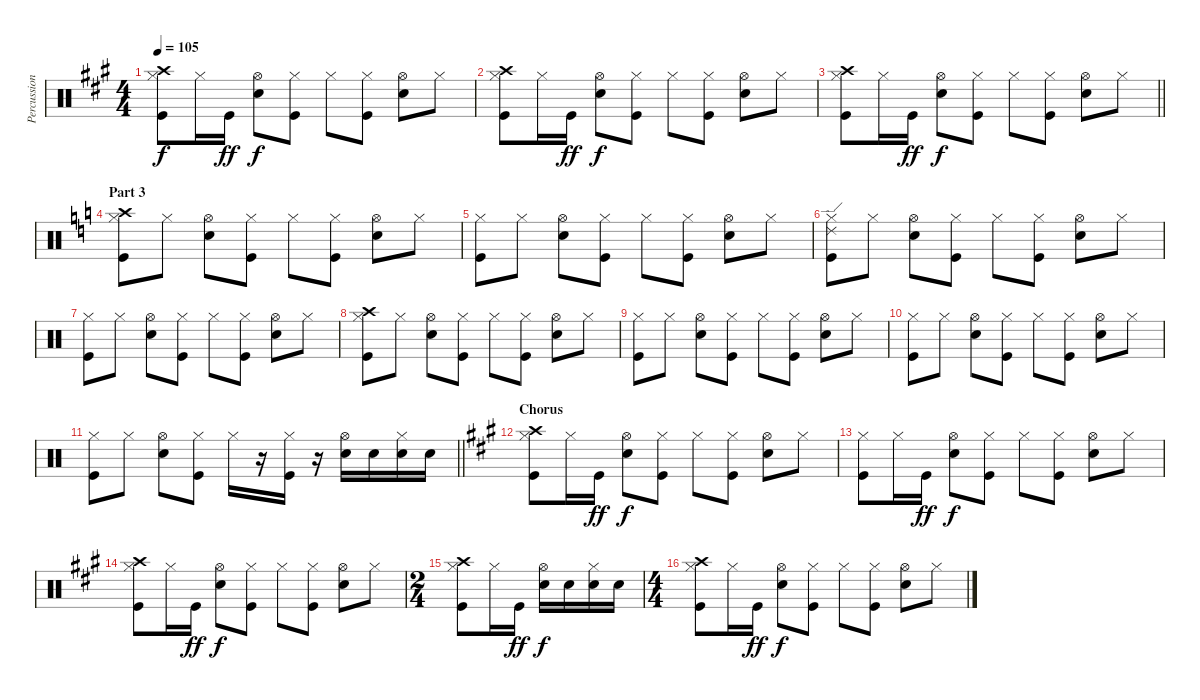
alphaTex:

\track ("Percussion" "Percussion") {instrument percussion}
\staff {score}
\articulation defaults
\ts (4 4)
\tempo 105
\clef neutral
\ks a
("Hi-Hat (closed)" "Crash high (hit)" "Kick (hit)").8{dy f} "Hi-Hat (closed)".16 "Kick (hit)".16{dy ff} ("Hi-Hat (open)" "Snare (hit) 2").8{dy f} ("Hi-Hat (closed)" "Kick (hit)").8 "Hi-Hat (closed)".8 ("Hi-Hat (closed)" "Kick (hit)").8 ("Hi-Hat (open)" "Snare (hit) 2").8 "Hi-Hat (closed)".8 |
("Hi-Hat (closed)" "Crash high (hit)" "Kick (hit)").8 "Hi-Hat (closed)".16 "Kick (hit)".16{dy ff} ("Hi-Hat (open)" "Snare (hit) 2").8{dy f} ("Hi-Hat (closed)" "Kick (hit)").8 "Hi-Hat (closed)".8 ("Hi-Hat (closed)" "Kick (hit)").8 ("Hi-Hat (open)" "Snare (hit) 2").8 "Hi-Hat (closed)".8 |
\barLineRight lightlight
("Hi-Hat (closed)" "Crash high (hit)" "Kick (hit)").8 "Hi-Hat (closed)".16 "Kick (hit)".16{dy ff} ("Hi-Hat (open)" "Snare (hit) 2").8{dy f} ("Hi-Hat (closed)" "Kick (hit)").8 "Hi-Hat (closed)".8 ("Hi-Hat (closed)" "Kick (hit)").8 ("Hi-Hat (open)" "Snare (hit) 2").8 "Hi-Hat (closed)".8 |
\section ("" "Part 3")
\ks c
("Hi-Hat (closed)" "Crash high (hit)" "Kick (hit)").8 "Hi-Hat (closed)".8 ("Hi-Hat (open)" "Snare (hit) 2").8 ("Hi-Hat (closed)" "Kick (hit)").8 "Hi-Hat (closed)".8 ("Hi-Hat (closed)" "Kick (hit)").8 ("Hi-Hat (open)" "Snare (hit) 2").8 "Hi-Hat (closed)".8 |
("Hi-Hat (closed)" "Kick (hit)").8 "Hi-Hat (closed)".8 ("Hi-Hat (open)" "Snare (hit) 2").8 ("Hi-Hat (closed)" "Kick (hit)").8 "Hi-Hat (closed)".8 ("Hi-Hat (closed)" "Kick (hit)").8 ("Hi-Hat (open)" "Snare (hit) 2").8 "Hi-Hat (closed)".8 |
("Hi-Hat (closed)" "Kick (hit)" "Ride (edge) 2").8 "Hi-Hat (closed)".8 ("Hi-Hat (open)" "Snare (hit) 2").8 ("Hi-Hat (closed)" "Kick (hit)").8 "Hi-Hat (closed)".8 ("Hi-Hat (closed)" "Kick (hit)").8 ("Hi-Hat (open)" "Snare (hit) 2").8 "Hi-Hat (closed)".8 |
("Hi-Hat (closed)" "Kick (hit)").8 "Hi-Hat (closed)".8 ("Hi-Hat (open)" "Snare (hit) 2").8 ("Hi-Hat (closed)" "Kick (hit)").8 "Hi-Hat (closed)".8 ("Hi-Hat (closed)" "Kick (hit)").8 ("Hi-Hat (open)" "Snare (hit) 2").8 "Hi-Hat (closed)".8 |
("Hi-Hat (closed)" "Crash high (hit)" "Kick (hit)").8 "Hi-Hat (closed)".8 ("Hi-Hat (open)" "Snare (hit) 2").8 ("Hi-Hat (closed)" "Kick (hit)").8 "Hi-Hat (closed)".8 ("Hi-Hat (closed)" "Kick (hit)").8 ("Hi-Hat (open)" "Snare (hit) 2").8 "Hi-Hat (closed)".8 |
("Hi-Hat (closed)" "Kick (hit)").8 "Hi-Hat (closed)".8 ("Hi-Hat (open)" "Snare (hit) 2").8 ("Hi-Hat (closed)" "Kick (hit)").8 "Hi-Hat (closed)".8 ("Hi-Hat (closed)" "Kick (hit)").8 ("Hi-Hat (open)" "Snare (hit) 2").8 "Hi-Hat (closed)".8 |
("Hi-Hat (closed)" "Kick (hit)").8 "Hi-Hat (closed)".8 ("Hi-Hat (open)" "Snare (hit) 2").8 ("Hi-Hat (closed)" "Kick (hit)").8 "Hi-Hat (closed)".8 ("Hi-Hat (closed)" "Kick (hit)").8 ("Hi-Hat (open)" "Snare (hit) 2").8 "Hi-Hat (closed)".8 |
\barLineRight lightlight
("Hi-Hat (closed)" "Kick (hit)").8 "Hi-Hat (closed)".8 ("Hi-Hat (open)" "Snare (hit) 2").8 ("Hi-Hat (closed)" "Kick (hit)").8 "Hi-Hat (closed)".16 r.16 ("Hi-Hat (closed)" "Kick (hit)").16 r.16 ("Hi-Hat (open)" "Snare (hit) 2").16 "Snare (hit) 2".16 ("Hi-Hat (closed)" "Snare (hit) 2").16 "Snare (hit) 2".16 |
\section ("" "Chorus")
\ks a
("Hi-Hat (closed)" "Crash high (hit)" "Kick (hit)").8 "Hi-Hat (closed)".16 "Kick (hit)".16{dy ff} ("Hi-Hat (open)" "Snare (hit) 2").8{dy f} ("Hi-Hat (closed)" "Kick (hit)").8 "Hi-Hat (closed)".8 ("Hi-Hat (closed)" "Kick (hit)").8 ("Hi-Hat (open)" "Snare (hit) 2").8 "Hi-Hat (closed)".8 |
("Hi-Hat (closed)" "Kick (hit)").8 "Hi-Hat (closed)".16 "Kick (hit)".16{dy ff} ("Hi-Hat (open)" "Snare (hit) 2").8{dy f} ("Hi-Hat (closed)" "Kick (hit)").8 "Hi-Hat (closed)".8 ("Hi-Hat (closed)" "Kick (hit)").8 ("Hi-Hat (open)" "Snare (hit) 2").8 "Hi-Hat (closed)".8 |
("Hi-Hat (closed)" "Crash high (hit)" "Kick (hit)").8 "Hi-Hat (closed)".16 "Kick (hit)".16{dy ff} ("Hi-Hat (open)" "Snare (hit) 2").8{dy f} ("Hi-Hat (closed)" "Kick (hit)").8 "Hi-Hat (closed)".8 ("Hi-Hat (closed)" "Kick (hit)").8 ("Hi-Hat (open)" "Snare (hit) 2").8 "Hi-Hat (closed)".8 |
\ts (2 4)
("Hi-Hat (closed)" "Crash high (hit)" "Kick (hit)").8 "Hi-Hat (closed)".16 "Kick (hit)".16{dy ff} ("Hi-Hat (open)" "Snare (hit) 2").16{dy f} "Snare (hit) 2".16 ("Hi-Hat (closed)" "Snare (hit) 2").16 "Snare (hit) 2".16 |
\ts (4 4)
("Hi-Hat (closed)" "Crash high (hit)" "Kick (hit)").8 "Hi-Hat (closed)".16 "Kick (hit)".16{dy ff} ("Hi-Hat (open)" "Snare (hit) 2").8{dy f} ("Hi-Hat (closed)" "Kick (hit)").8 "Hi-Hat (closed)".8 ("Hi-Hat (closed)" "Kick (hit)").8 ("Hi-Hat (open)" "Snare (hit) 2").8 "Hi-Hat (closed)".8
